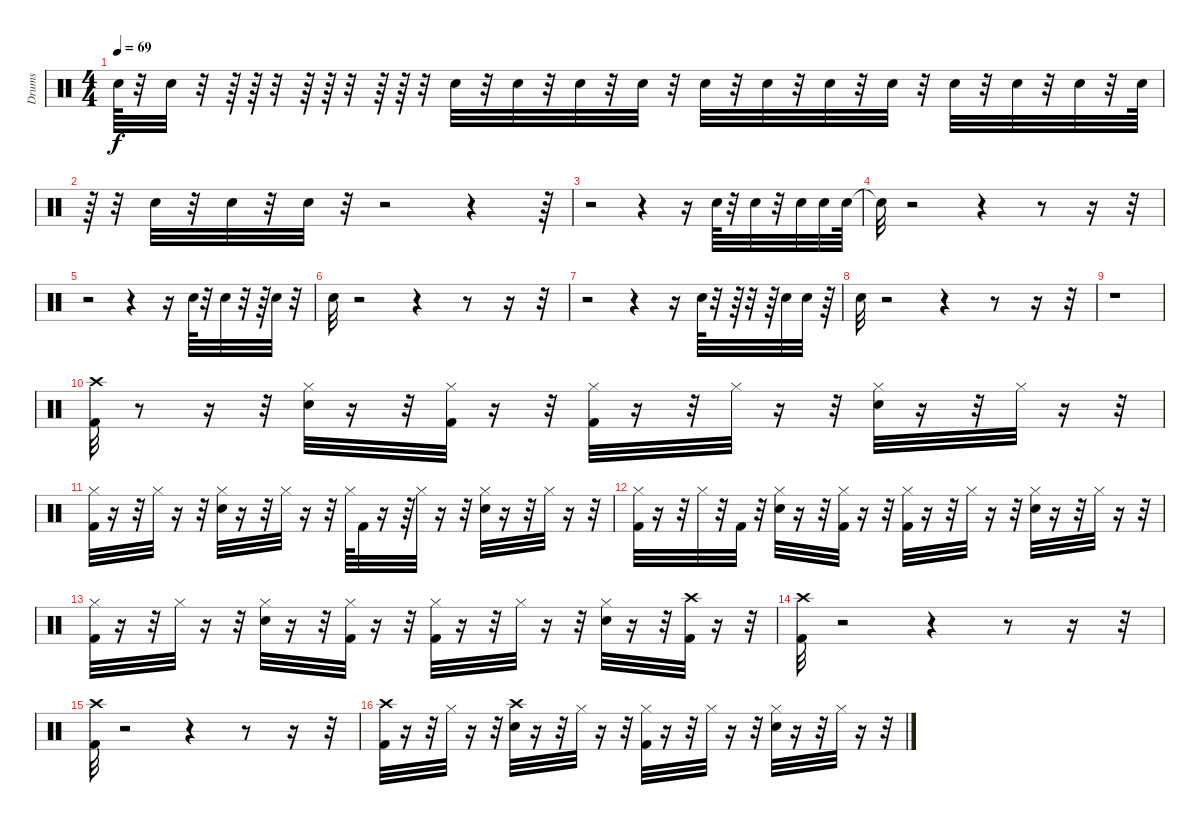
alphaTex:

\track ("Drums" "Drums") {instrument percussion}
\staff {score}
\articulation defaults
\ts (4 4)
\tempo 69
\clef neutral
\ks c "Snare (hit) 2".64{dy f}
r.32 "Snare (hit) 2".32 r.32 r.64 r.64 r.32 r.64 r.64 r.32 r.64 r.64 r.32 "Snare (hit) 2".32 r.32 "Snare (hit) 2".32 r.32 "Snare (hit) 2".32 r.32 "Snare (hit) 2".32 r.32 "Snare (hit) 2".32 r.32 "Snare (hit) 2".32 r.32 "Snare (hit) 2".32 r.32 "Snare (hit) 2".32 r.32 "Snare (hit) 2".32 r.32 "Snare (hit) 2".32 r.32 "Snare (hit) 2".32 r.32 "Snare (hit) 2".64 |
r.64 r.32 "Snare (hit) 2".32 r.32 "Snare (hit) 2".32 r.32 "Snare (hit) 2".32 r.32 r.2 r.4 r.64 |
r.2 r.4 r.16 "Snare (hit) 2".64 r.32 "Snare (hit) 2".32 r.32 "Snare (hit) 2".32 "Snare (hit) 2".32 "Snare (hit) 2".64 |
"Snare (hit)"{t}.32 r.2 r.4 r.8 r.16 r.32 |
r.2 r.4 r.16 "Snare (hit) 2".64 r.32 "Snare (hit) 2".32 r.32 r.64 "Snare (hit) 2".32 r.32 |
"Snare (hit) 2".32 r.2 r.4 r.8 r.16 r.32 |
r.2 r.4 r.16 "Snare (hit) 2".64 r.32 r.64 r.32 r.64 "Snare (hit) 2".32 "Snare (hit) 2".32 r.64 |
"Snare (hit) 2".32 r.2 r.4 r.8 r.16 r.32 |
r.1 |
("Kick (hit) 2" "Crash high (hit)").32 r.8 r.16 r.32 ("Snare (hit) 2" "Hi-Hat (closed)").32 r.16 r.32 ("Hi-Hat (closed)" "Kick (hit) 2").32 r.16 r.32 ("Hi-Hat (closed)" "Kick (hit) 2").32 r.16 r.32 "Hi-Hat (closed)".32 r.16 r.32 ("Snare (hit) 2" "Hi-Hat (closed)").32 r.16 r.32 "Hi-Hat (closed)".32 r.16 r.32 |
("Hi-Hat (closed)" "Kick (hit) 2").32 r.16 r.32 "Hi-Hat (closed)".32 r.16 r.32 ("Snare (hit) 2" "Hi-Hat (closed)").32 r.16 r.32 "Hi-Hat (closed)".32 r.16 r.32 "Hi-Hat (closed)".64 "Kick (hit) 2".32 r.16 r.64 "Hi-Hat (closed)".32 r.16 r.32 ("Snare (hit) 2" "Hi-Hat (closed)").32 r.16 r.32 "Hi-Hat (closed)".32 r.16 r.32 |
("Hi-Hat (closed)" "Kick (hit) 2").32 r.16 r.32 "Hi-Hat (closed)".32 r.32 "Kick (hit) 2".32 r.32 ("Snare (hit) 2" "Hi-Hat (closed)").32 r.16 r.32 ("Hi-Hat (closed)" "Kick (hit) 2").32 r.16 r.32 ("Hi-Hat (closed)" "Kick (hit) 2").32 r.16 r.32 "Hi-Hat (closed)".32 r.16 r.32 ("Snare (hit) 2" "Hi-Hat (closed)").32 r.16 r.32 "Hi-Hat (closed)".32 r.16 r.32 |
("Kick (hit) 2" "Hi-Hat (closed)").32 r.16 r.32 "Hi-Hat (closed)".32 r.16 r.32 ("Snare (hit) 2" "Hi-Hat (closed)").32 r.16 r.32 ("Kick (hit) 2" "Hi-Hat (closed)").32 r.16 r.32 ("Hi-Hat (closed)" "Kick (hit) 2").32 r.16 r.32 "Hi-Hat (closed)".32 r.16 r.32 ("Snare (hit) 2" "Hi-Hat (closed)").32 r.16 r.32 ("Crash high (hit)" "Kick (hit) 2").32 r.16 r.32 |
("Kick (hit) 2" "Crash high (hit)").32 r.2 r.4 r.8 r.16 r.32 |
("Kick (hit) 2" "Crash high (hit)").32 r.2 r.4 r.8 r.16 r.32 |
("Kick (hit) 2" "Crash high (hit)").32 r.16 r.32 "Hi-Hat (closed)".32 r.16 r.32 ("Crash high (hit)" "Snare (hit) 2").32 r.16 r.32 "Hi-Hat (closed)".32 r.16 r.32 ("Hi-Hat (closed)" "Kick (hit) 2").32 r.16 r.32 "Hi-Hat (closed)".32 r.16 r.32 ("Snare (hit) 2" "Hi-Hat (closed)").32 r.16 r.32 "Hi-Hat (closed)".32 r.16 r.32
